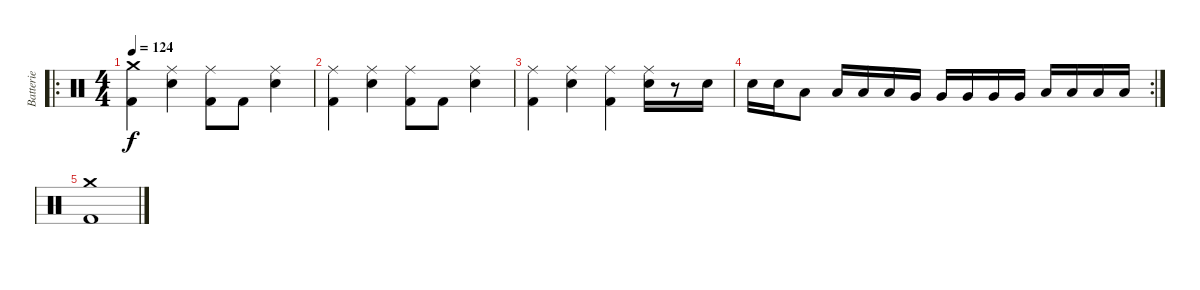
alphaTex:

\track ("Batterie" "Batterie") {instrument percussion}
\staff {score}
\articulation defaults
\ro
\ts (4 4)
\tempo 124
\clef neutral
\ks c
("Crash medium (hit)" "Kick (hit) 2").4{dy f} ("Ride (middle)" "Snare (hit) 2").4 ("Ride (middle)" "Kick (hit) 2").8 "Kick (hit) 2".8 ("Ride (middle)" "Snare (hit) 2").4 |
("Ride (middle)" "Kick (hit) 2").4 ("Ride (middle)" "Snare (hit) 2").4 ("Ride (middle)" "Kick (hit) 2").8 "Kick (hit) 2".8 ("Ride (middle)" "Snare (hit) 2").4 |
("Ride (middle)" "Kick (hit) 2").4 ("Ride (middle)" "Snare (hit) 2").4 ("Ride (middle)" "Kick (hit) 2").4 ("Ride (middle)" "Snare (hit) 2").16 r.8 "Snare (hit) 2".16 |
\rc 2 "Snare (hit) 2".16 "Snare (hit) 2".16 "Low Tom (hit)".8 "Low Tom (hit)".16 "Low Tom (hit)".16 "Low Tom (hit)".16 "Very Low Tom (hit)".16 "Very Low Tom (hit)".16 "Very Low Tom (hit)".16 "Very Low Tom (hit)".16 "Very Low Tom (hit)".16 "Low Tom (hit)".16 "Low Tom (hit)".16 "Low Floor Tom (hit)".16 "Low Floor Tom (hit)".16
|
("Crash medium (hit)" "Kick (hit) 2").1
